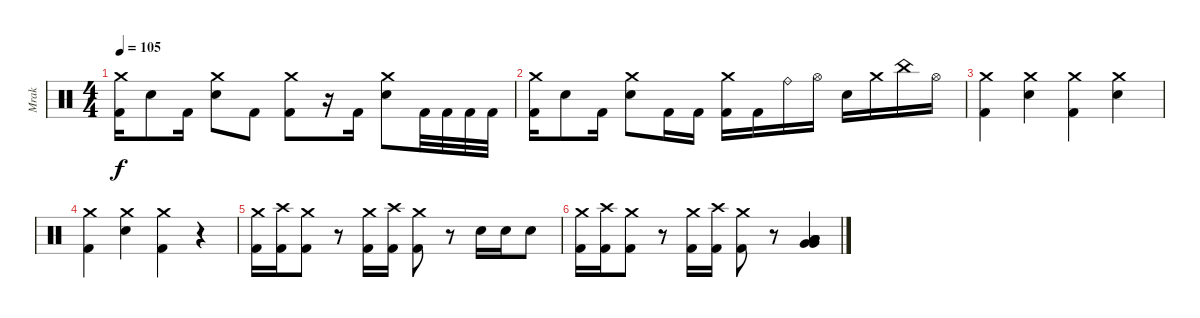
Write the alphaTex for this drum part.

\track ("Mrak" "Mrak") {instrument percussion}
\staff {score}
\articulation defaults
\ts (4 4)
\tempo 105
\clef neutral
\ks c
("Crash medium (hit)" "Kick (hit) 2").16{dy f} "Electric Snare (hit)".8 "Kick (hit) 2".16 ("Crash medium (hit)" "Electric Snare (hit)").8 "Kick (hit) 2".8 ("Crash medium (hit)" "Kick (hit) 2").8 r.16 "Kick (hit) 2".16 ("Crash medium (hit)" "Electric Snare (hit)").8 "Kick (hit) 2".32 "Kick (hit) 2".32 "Kick (hit) 2".32 "Kick (hit) 2".32 |
("Crash medium (hit)" "Kick (hit) 2").16 "Electric Snare (hit)".8 "Kick (hit) 2".16 ("Crash medium (hit)" "Electric Snare (hit)").8 "Kick (hit) 2".16 "Kick (hit) 2".16 ("Crash medium (hit)" "Kick (hit) 2").16 "Kick (hit) 2".16 "Ride (bell)".16 "Hi-Hat (open)".16 "Electric Snare (hit)".16 "Crash medium (hit)".16 "China (hit)".16 "Hi-Hat (open)".16 |
("Crash medium (hit)" "Kick (hit) 2").4 ("Crash medium (hit)" "Electric Snare (hit)").4 ("Crash medium (hit)" "Kick (hit) 2").4 ("Crash medium (hit)" "Electric Snare (hit)").4 |
("Crash medium (hit)" "Kick (hit) 2").4 ("Crash medium (hit)" "Electric Snare (hit)").4 ("Crash medium (hit)" "Kick (hit) 2").4 r.4 |
("Crash medium (hit)" "Kick (hit) 2").16 ("Crash high (hit)" "Kick (hit) 2").16 ("Crash medium (hit)" "Kick (hit) 2").8 r.8 ("Crash medium (hit)" "Kick (hit) 2").16 ("Crash high (hit)" "Kick (hit) 2").16 ("Crash medium (hit)" "Kick (hit) 2").8 r.8 "Electric Snare (hit)".16 "Electric Snare (hit)".16 "Electric Snare (hit)".8 |
("Crash medium (hit)" "Kick (hit) 2").16 ("Crash high (hit)" "Kick (hit) 2").16 ("Crash medium (hit)" "Kick (hit) 2").8 r.8 ("Crash medium (hit)" "Kick (hit) 2").16 ("Crash high (hit)" "Kick (hit) 2").16 ("Crash medium (hit)" "Kick (hit) 2").8 r.8 ("Very Low Tom (hit)" "Very Low Tom (hit)" "Low Tom (hit)" "Low Floor Tom (hit)" "Low Floor Tom (hit)").4
